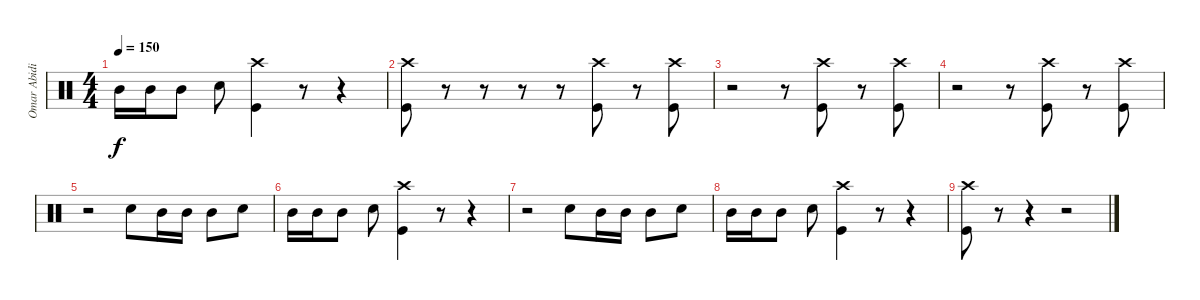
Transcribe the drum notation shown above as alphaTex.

\track ("Omar Abidi" "Omar Abidi") {instrument percussion}
\staff {score}
\articulation defaults
\ts (4 4)
\tempo 150
\clef neutral
\ks c "Mid Tom (hit)".16{dy f} "Mid Tom (hit)".16 "Mid Tom (hit)".8 "Snare (hit) 2".8
("Crash high (hit)" "Kick (hit)").4 r.8 r.4 |
("Crash high (hit)" "Kick (hit)").8 r.8 r.8 r.8 r.8 ("Crash high (hit)" "Kick (hit)").8 r.8 ("Crash high (hit)" "Kick (hit)").8 |
r.2 r.8 ("Crash high (hit)" "Kick (hit)").8 r.8 ("Crash high (hit)" "Kick (hit)").8 |
r.2 r.8 ("Crash high (hit)" "Kick (hit)").8 r.8 ("Crash high (hit)" "Kick (hit)").8 |
r.2 "Snare (hit) 2".8 "Mid Tom (hit)".16 "Mid Tom (hit)".16 "Mid Tom (hit)".8 "Snare (hit) 2".8 |
"Mid Tom (hit)".16 "Mid Tom (hit)".16 "Mid Tom (hit)".8 "Snare (hit) 2".8 ("Crash high (hit)" "Kick (hit)").4 r.8 r.4 |
r.2 "Snare (hit) 2".8 "Mid Tom (hit)".16 "Mid Tom (hit)".16 "Mid Tom (hit)".8 "Snare (hit) 2".8 |
"Mid Tom (hit)".16 "Mid Tom (hit)".16 "Mid Tom (hit)".8 "Snare (hit) 2".8 ("Crash high (hit)" "Kick (hit)").4 r.8 r.4 |
("Crash high (hit)" "Kick (hit)").8 r.8 r.4 r.2
